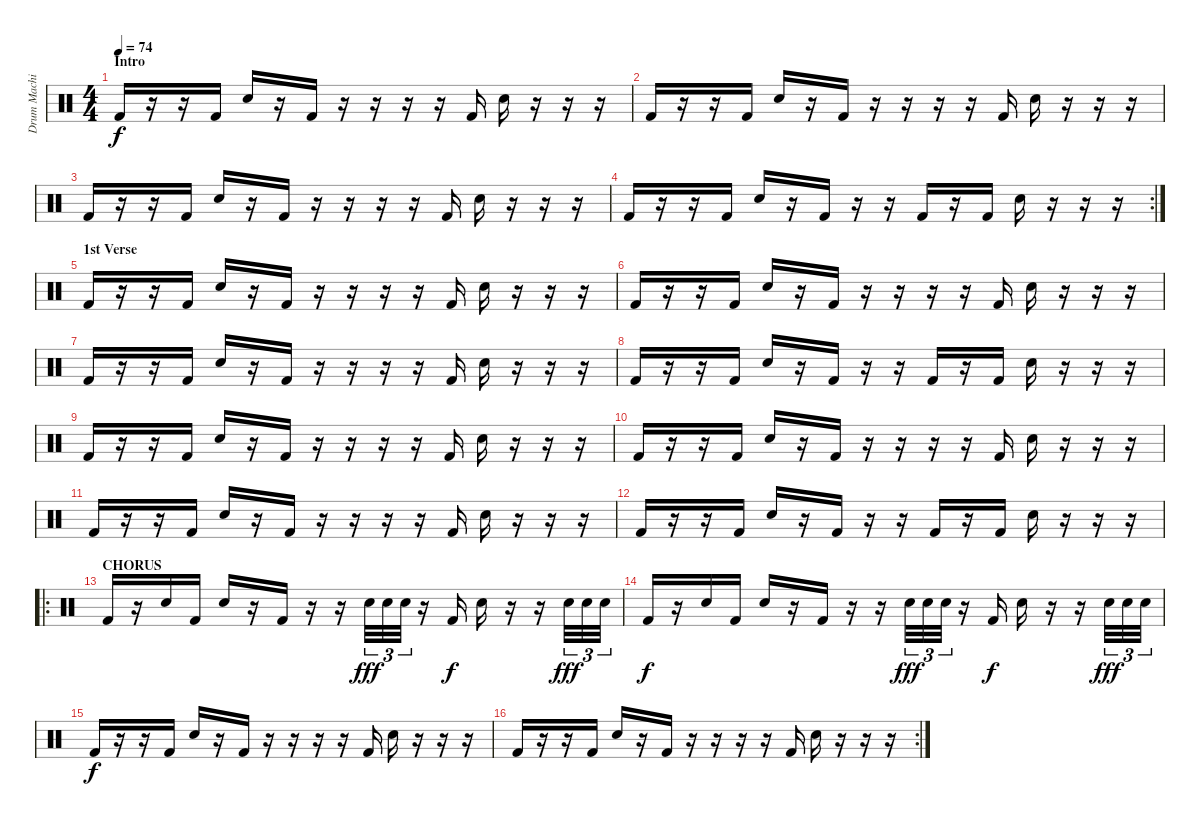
\track ("Drum Machine" "Drum Machi") {instrument percussion}
\staff {score}
\articulation defaults
\ts (4 4)
\section ("" "Intro")
\tempo 74
\clef neutral
\ks c "Kick (hit) 2".16{dy f}
r.16 r.16 "Kick (hit) 2".16 "Electric Snare (hit)".16 r.16 "Kick (hit) 2".16 r.16 r.16 r.16 r.16 "Kick (hit) 2".16 "Electric Snare (hit)".16 r.16 r.16 r.16 |
"Kick (hit) 2".16 r.16 r.16 "Kick (hit) 2".16 "Electric Snare (hit)".16 r.16 "Kick (hit) 2".16 r.16 r.16 r.16 r.16 "Kick (hit) 2".16 "Electric Snare (hit)".16 r.16 r.16 r.16 |
"Kick (hit) 2".16 r.16 r.16 "Kick (hit) 2".16 "Electric Snare (hit)".16 r.16 "Kick (hit) 2".16 r.16 r.16 r.16 r.16 "Kick (hit) 2".16 "Electric Snare (hit)".16 r.16 r.16 r.16 |
\rc 2 "Kick (hit) 2".16
r.16 r.16 "Kick (hit) 2".16 "Electric Snare (hit)".16 r.16 "Kick (hit) 2".16 r.16 r.16 "Kick (hit) 2".16 r.16 "Kick (hit) 2".16 "Electric Snare (hit)".16 r.16 r.16 r.16 |
\section ("" "1st Verse")
"Kick (hit) 2".16 r.16 r.16 "Kick (hit) 2".16 "Electric Snare (hit)".16 r.16 "Kick (hit) 2".16 r.16 r.16 r.16 r.16 "Kick (hit) 2".16 "Electric Snare (hit)".16 r.16 r.16 r.16 |
"Kick (hit) 2".16 r.16 r.16 "Kick (hit) 2".16 "Electric Snare (hit)".16 r.16 "Kick (hit) 2".16 r.16 r.16 r.16 r.16 "Kick (hit) 2".16 "Electric Snare (hit)".16 r.16 r.16 r.16 |
"Kick (hit) 2".16 r.16 r.16 "Kick (hit) 2".16 "Electric Snare (hit)".16 r.16 "Kick (hit) 2".16 r.16 r.16 r.16 r.16 "Kick (hit) 2".16 "Electric Snare (hit)".16 r.16 r.16 r.16 |
"Kick (hit) 2".16 r.16 r.16 "Kick (hit) 2".16 "Electric Snare (hit)".16 r.16 "Kick (hit) 2".16 r.16 r.16 "Kick (hit) 2".16 r.16 "Kick (hit) 2".16 "Electric Snare (hit)".16 r.16 r.16 r.16 |
"Kick (hit) 2".16 r.16 r.16 "Kick (hit) 2".16 "Electric Snare (hit)".16 r.16 "Kick (hit) 2".16 r.16 r.16 r.16 r.16 "Kick (hit) 2".16 "Electric Snare (hit)".16 r.16 r.16 r.16 |
"Kick (hit) 2".16 r.16 r.16 "Kick (hit) 2".16 "Electric Snare (hit)".16 r.16 "Kick (hit) 2".16 r.16 r.16 r.16 r.16 "Kick (hit) 2".16 "Electric Snare (hit)".16 r.16 r.16 r.16 |
"Kick (hit) 2".16 r.16 r.16 "Kick (hit) 2".16 "Electric Snare (hit)".16 r.16 "Kick (hit) 2".16 r.16 r.16 r.16 r.16 "Kick (hit) 2".16 "Electric Snare (hit)".16 r.16 r.16 r.16 |
"Kick (hit) 2".16 r.16 r.16 "Kick (hit) 2".16 "Electric Snare (hit)".16 r.16 "Kick (hit) 2".16 r.16 r.16 "Kick (hit) 2".16 r.16 "Kick (hit) 2".16 "Electric Snare (hit)".16 r.16 r.16 r.16 |
\ro
\section ("" "CHORUS")
"Kick (hit) 2".16 r.16 "Electric Snare (hit)".16 "Kick (hit) 2".16 "Electric Snare (hit)".16 r.16 "Kick (hit) 2".16 r.16 r.16 "Electric Snare (hit)".32{tu (3 2) dy fff} "Electric Snare (hit)".32{tu (3 2)} "Electric Snare (hit)".32{tu (3 2)} r.16 "Kick (hit) 2".16{dy f} "Electric Snare (hit)".16 r.16 r.16 "Electric Snare (hit)".32{tu (3 2) dy fff} "Electric Snare (hit)".32{tu (3 2)} "Electric Snare (hit)".32{tu (3 2)} |
"Kick (hit) 2".16{dy f} r.16 "Electric Snare (hit)".16 "Kick (hit) 2".16 "Electric Snare (hit)".16 r.16 "Kick (hit) 2".16 r.16 r.16 "Electric Snare (hit)".32{tu (3 2) dy fff} "Electric Snare (hit)".32{tu (3 2)} "Electric Snare (hit)".32{tu (3 2)} r.16 "Kick (hit) 2".16{dy f} "Electric Snare (hit)".16 r.16 r.16 "Electric Snare (hit)".32{tu (3 2) dy fff} "Electric Snare (hit)".32{tu (3 2)} "Electric Snare (hit)".32{tu (3 2)} |
"Kick (hit) 2".16{dy f} r.16 r.16 "Kick (hit) 2".16 "Electric Snare (hit)".16 r.16 "Kick (hit) 2".16 r.16 r.16 r.16 r.16 "Kick (hit) 2".16 "Electric Snare (hit)".16 r.16 r.16 r.16 |
\rc 2 "Kick (hit) 2".16
r.16 r.16 "Kick (hit) 2".16 "Electric Snare (hit)".16 r.16 "Kick (hit) 2".16 r.16 r.16 r.16 r.16 "Kick (hit) 2".16 "Electric Snare (hit)".16 r.16 r.16 r.16
